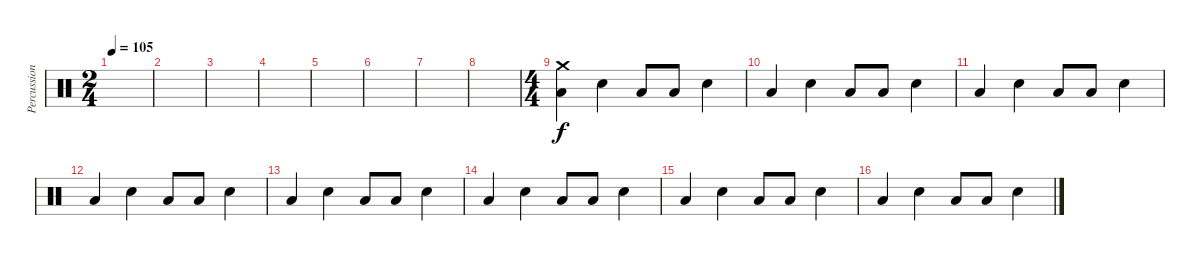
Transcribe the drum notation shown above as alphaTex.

\track ("Percussions" "Percussion") {instrument percussion}
\staff {score}
\articulation defaults
\ts (2 4)
\tempo 105
\clef neutral
\ks c
|
|
|
|
|
|
|
|
\ts (4 4)
("Crash medium (hit)" "Low Floor Tom (hit)").4 "Electric Snare (hit)".4 "Low Floor Tom (hit)".8 "Low Floor Tom (hit)".8 "Electric Snare (hit)".4 |
"Low Floor Tom (hit)".4 "Electric Snare (hit)".4 "Low Floor Tom (hit)".8 "Low Floor Tom (hit)".8 "Electric Snare (hit)".4 |
"Low Floor Tom (hit)".4 "Electric Snare (hit)".4 "Low Floor Tom (hit)".8 "Low Floor Tom (hit)".8 "Electric Snare (hit)".4 |
"Low Floor Tom (hit)".4 "Electric Snare (hit)".4 "Low Floor Tom (hit)".8 "Low Floor Tom (hit)".8 "Electric Snare (hit)".4 |
"Low Floor Tom (hit)".4 "Electric Snare (hit)".4 "Low Floor Tom (hit)".8 "Low Floor Tom (hit)".8 "Electric Snare (hit)".4 |
"Low Floor Tom (hit)".4 "Electric Snare (hit)".4 "Low Floor Tom (hit)".8 "Low Floor Tom (hit)".8 "Electric Snare (hit)".4 |
"Low Floor Tom (hit)".4 "Electric Snare (hit)".4 "Low Floor Tom (hit)".8 "Low Floor Tom (hit)".8 "Electric Snare (hit)".4 |
"Low Floor Tom (hit)".4 "Electric Snare (hit)".4 "Low Floor Tom (hit)".8 "Low Floor Tom (hit)".8 "Electric Snare (hit)".4
